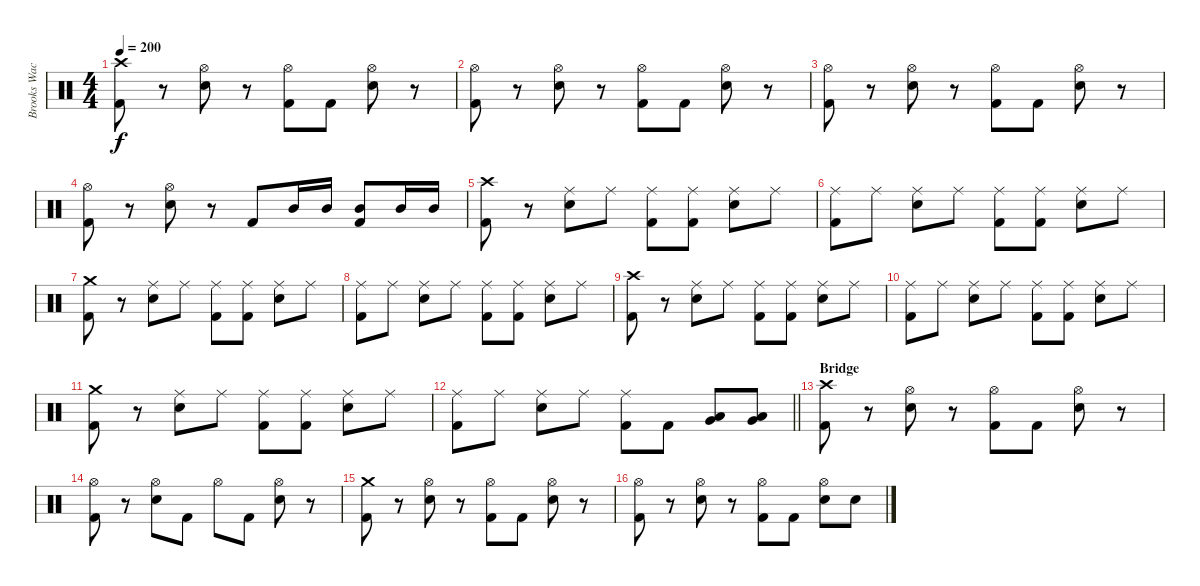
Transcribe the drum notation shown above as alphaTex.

\track ("Brooks Wackerman" "Brooks Wac") {instrument percussion}
\staff {score}
\articulation defaults
\ts (4 4)
\tempo 200
\clef neutral
\ks c
("Crash high (hit)" "Kick (hit) 2").8{dy f} r.8 ("Hi-Hat (open)" "Electric Snare (hit)").8 r.8 ("Hi-Hat (open)" "Kick (hit) 2").8 "Kick (hit) 2".8 ("Hi-Hat (open)" "Electric Snare (hit)").8 r.8 |
("Hi-Hat (open)" "Kick (hit) 2").8 r.8 ("Hi-Hat (open)" "Electric Snare (hit)").8 r.8 ("Hi-Hat (open)" "Kick (hit) 2").8 "Kick (hit) 2".8 ("Hi-Hat (open)" "Electric Snare (hit)").8 r.8 |
("Hi-Hat (open)" "Kick (hit) 2").8 r.8 ("Hi-Hat (open)" "Electric Snare (hit)").8 r.8 ("Hi-Hat (open)" "Kick (hit) 2").8 "Kick (hit) 2".8 ("Hi-Hat (open)" "Electric Snare (hit)").8 r.8 |
("Hi-Hat (open)" "Kick (hit) 2").8 r.8 ("Hi-Hat (open)" "Electric Snare (hit)").8 r.8 "Kick (hit) 2".8 "Mid Tom (hit)".16 "Mid Tom (hit)".16 ("Mid Tom (hit)" "Kick (hit) 2").8 "Mid Tom (hit)".16 "Mid Tom (hit)".16 |
("Crash high (hit)" "Kick (hit) 2").8 r.8 ("Ride (middle)" "Electric Snare (hit)").8 "Ride (middle)".8 ("Ride (middle)" "Kick (hit) 2").8 ("Ride (middle)" "Kick (hit) 2").8 ("Ride (middle)" "Electric Snare (hit)").8 "Ride (middle)".8 |
("Ride (middle)" "Kick (hit) 2").8 "Ride (middle)".8 ("Ride (middle)" "Electric Snare (hit)").8 "Ride (middle)".8 ("Ride (middle)" "Kick (hit) 2").8 ("Ride (middle)" "Kick (hit) 2").8 ("Ride (middle)" "Electric Snare (hit)").8 "Ride (middle)".8 |
("Crash medium (hit)" "Kick (hit) 2").8 r.8 ("Ride (middle)" "Electric Snare (hit)").8 "Ride (middle)".8 ("Ride (middle)" "Kick (hit) 2").8 ("Ride (middle)" "Kick (hit) 2").8 ("Ride (middle)" "Electric Snare (hit)").8 "Ride (middle)".8 |
("Ride (middle)" "Kick (hit) 2").8 "Ride (middle)".8 ("Ride (middle)" "Electric Snare (hit)").8 "Ride (middle)".8 ("Ride (middle)" "Kick (hit) 2").8 ("Ride (middle)" "Kick (hit) 2").8 ("Ride (middle)" "Electric Snare (hit)").8 "Ride (middle)".8 |
("Crash high (hit)" "Kick (hit) 2").8 r.8 ("Ride (middle)" "Electric Snare (hit)").8 "Ride (middle)".8 ("Ride (middle)" "Kick (hit) 2").8 ("Ride (middle)" "Kick (hit) 2").8 ("Ride (middle)" "Electric Snare (hit)").8 "Ride (middle)".8 |
("Ride (middle)" "Kick (hit) 2").8 "Ride (middle)".8 ("Ride (middle)" "Electric Snare (hit)").8 "Ride (middle)".8 ("Ride (middle)" "Kick (hit) 2").8 ("Ride (middle)" "Kick (hit) 2").8 ("Ride (middle)" "Electric Snare (hit)").8 "Ride (middle)".8 |
("Crash medium (hit)" "Kick (hit) 2").8 r.8 ("Ride (middle)" "Electric Snare (hit)").8 "Ride (middle)".8 ("Ride (middle)" "Kick (hit) 2").8 ("Ride (middle)" "Kick (hit) 2").8 ("Ride (middle)" "Electric Snare (hit)").8 "Ride (middle)".8 |
\barLineRight lightlight
("Ride (middle)" "Kick (hit) 2").8 "Ride (middle)".8 ("Ride (middle)" "Electric Snare (hit)").8 "Ride (middle)".8 ("Ride (middle)" "Kick (hit) 2").8 "Kick (hit) 2".8 ("Low Tom (hit)" "Very Low Tom (hit)").8 ("Low Tom (hit)" "Very Low Tom (hit)").8 |
\section ("" "Bridge")
("Crash high (hit)" "Kick (hit) 2").8 r.8 ("Hi-Hat (open)" "Electric Snare (hit)").8 r.8 ("Hi-Hat (open)" "Kick (hit) 2").8 "Kick (hit) 2".8 ("Hi-Hat (open)" "Electric Snare (hit)").8 r.8 |
("Hi-Hat (open)" "Kick (hit) 2").8 r.8 ("Hi-Hat (open)" "Electric Snare (hit)").8 "Kick (hit) 2".8 "Hi-Hat (open)".8 "Kick (hit) 2".8 ("Hi-Hat (open)" "Electric Snare (hit)").8 r.8 |
("Crash medium (hit)" "Kick (hit) 2").8 r.8 ("Hi-Hat (open)" "Electric Snare (hit)").8 r.8 ("Hi-Hat (open)" "Kick (hit) 2").8 "Kick (hit) 2".8 ("Hi-Hat (open)" "Electric Snare (hit)").8 r.8 |
("Hi-Hat (open)" "Kick (hit) 2").8 r.8 ("Hi-Hat (open)" "Electric Snare (hit)").8 r.8 ("Hi-Hat (open)" "Kick (hit) 2").8 "Kick (hit) 2".8 ("Hi-Hat (open)" "Electric Snare (hit)").8 "Electric Snare (hit)".8
